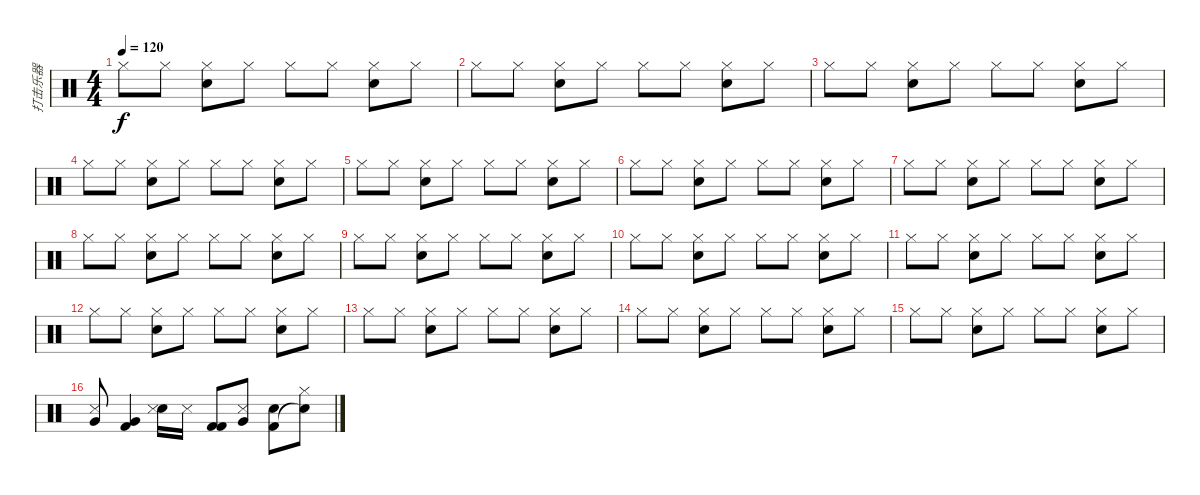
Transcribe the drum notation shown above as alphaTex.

\track ("打击乐器" "打击乐器") {instrument percussion}
\staff {score}
\articulation defaults
\ts (4 4)
\tempo 120
\clef neutral
\ks c "Hi-Hat (closed)".8{dy f} "Hi-Hat (closed)".8
("Snare (hit) 2" "Hi-Hat (closed)").8 "Hi-Hat (closed)".8 "Hi-Hat (closed)".8 "Hi-Hat (closed)".8 ("Snare (hit) 2" "Hi-Hat (closed)").8 "Hi-Hat (closed)".8 |
"Hi-Hat (closed)".8 "Hi-Hat (closed)".8 ("Snare (hit) 2" "Hi-Hat (closed)").8 "Hi-Hat (closed)".8 "Hi-Hat (closed)".8 "Hi-Hat (closed)".8 ("Snare (hit) 2" "Hi-Hat (closed)").8 "Hi-Hat (closed)".8 |
"Hi-Hat (closed)".8 "Hi-Hat (closed)".8 ("Snare (hit) 2" "Hi-Hat (closed)").8 "Hi-Hat (closed)".8 "Hi-Hat (closed)".8 "Hi-Hat (closed)".8 ("Snare (hit) 2" "Hi-Hat (closed)").8 "Hi-Hat (closed)".8 |
"Hi-Hat (closed)".8 "Hi-Hat (closed)".8 ("Snare (hit) 2" "Hi-Hat (closed)").8 "Hi-Hat (closed)".8 "Hi-Hat (closed)".8 "Hi-Hat (closed)".8 ("Snare (hit) 2" "Hi-Hat (closed)").8 "Hi-Hat (closed)".8 |
"Hi-Hat (closed)".8 "Hi-Hat (closed)".8 ("Snare (hit) 2" "Hi-Hat (closed)").8 "Hi-Hat (closed)".8 "Hi-Hat (closed)".8 "Hi-Hat (closed)".8 ("Snare (hit) 2" "Hi-Hat (closed)").8 "Hi-Hat (closed)".8 |
"Hi-Hat (closed)".8 "Hi-Hat (closed)".8 ("Snare (hit) 2" "Hi-Hat (closed)").8 "Hi-Hat (closed)".8 "Hi-Hat (closed)".8 "Hi-Hat (closed)".8 ("Snare (hit) 2" "Hi-Hat (closed)").8 "Hi-Hat (closed)".8 |
"Hi-Hat (closed)".8 "Hi-Hat (closed)".8 ("Snare (hit) 2" "Hi-Hat (closed)").8 "Hi-Hat (closed)".8 "Hi-Hat (closed)".8 "Hi-Hat (closed)".8 ("Snare (hit) 2" "Hi-Hat (closed)").8 "Hi-Hat (closed)".8 |
"Hi-Hat (closed)".8 "Hi-Hat (closed)".8 ("Snare (hit) 2" "Hi-Hat (closed)").8 "Hi-Hat (closed)".8 "Hi-Hat (closed)".8 "Hi-Hat (closed)".8 ("Snare (hit) 2" "Hi-Hat (closed)").8 "Hi-Hat (closed)".8 |
"Hi-Hat (closed)".8 "Hi-Hat (closed)".8 ("Snare (hit) 2" "Hi-Hat (closed)").8 "Hi-Hat (closed)".8 "Hi-Hat (closed)".8 "Hi-Hat (closed)".8 ("Snare (hit) 2" "Hi-Hat (closed)").8 "Hi-Hat (closed)".8 |
"Hi-Hat (closed)".8 "Hi-Hat (closed)".8 ("Snare (hit) 2" "Hi-Hat (closed)").8 "Hi-Hat (closed)".8 "Hi-Hat (closed)".8 "Hi-Hat (closed)".8 ("Snare (hit) 2" "Hi-Hat (closed)").8 "Hi-Hat (closed)".8 |
"Hi-Hat (closed)".8 "Hi-Hat (closed)".8 ("Snare (hit) 2" "Hi-Hat (closed)").8 "Hi-Hat (closed)".8 "Hi-Hat (closed)".8 "Hi-Hat (closed)".8 ("Snare (hit) 2" "Hi-Hat (closed)").8 "Hi-Hat (closed)".8 |
"Hi-Hat (closed)".8 "Hi-Hat (closed)".8 ("Snare (hit) 2" "Hi-Hat (closed)").8 "Hi-Hat (closed)".8 "Hi-Hat (closed)".8 "Hi-Hat (closed)".8 ("Snare (hit) 2" "Hi-Hat (closed)").8 "Hi-Hat (closed)".8 |
"Hi-Hat (closed)".8 "Hi-Hat (closed)".8 ("Snare (hit) 2" "Hi-Hat (closed)").8 "Hi-Hat (closed)".8 "Hi-Hat (closed)".8 "Hi-Hat (closed)".8 ("Snare (hit) 2" "Hi-Hat (closed)").8 "Hi-Hat (closed)".8 |
"Hi-Hat (closed)".8 "Hi-Hat (closed)".8 ("Snare (hit) 2" "Hi-Hat (closed)").8 "Hi-Hat (closed)".8 "Hi-Hat (closed)".8 "Hi-Hat (closed)".8 ("Snare (hit) 2" "Hi-Hat (closed)").8 "Hi-Hat (closed)".8 |
"Hi-Hat (closed)".8 "Hi-Hat (closed)".8 ("Snare (hit) 2" "Hi-Hat (closed)").8 "Hi-Hat (closed)".8 "Hi-Hat (closed)".8 "Hi-Hat (closed)".8 ("Snare (hit) 2" "Hi-Hat (closed)").8 "Hi-Hat (closed)".8 |
("Metronome (hit)" "Very Low Tom (hit)").8 ("Very Low Tom (hit)" "Kick (hit) 2").4 ("Snare (hit) 2" "Snare (side stick) 3").16 "Snare (side stick) 3".16 ("Kick (hit) 2" "Kick (hit) 2").8 ("Very Low Tom (hit)" "Snare (side stick) 3").8 ("Snare (hit) 2" "Kick (hit) 2").8 ("Hi-Hat (closed)" "Snare (hit)"{t}).8
